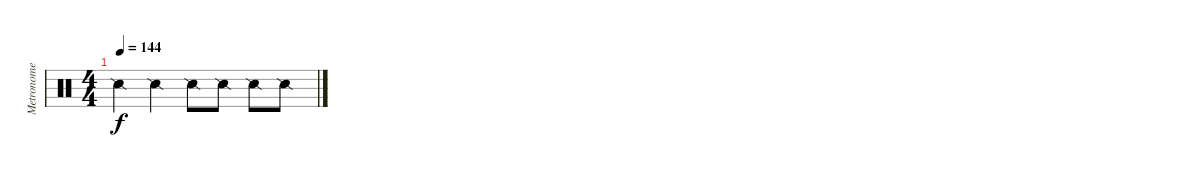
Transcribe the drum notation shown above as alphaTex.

\track ("Metronome" "Metronome") {instrument percussion}
\staff {score}
\articulation defaults
\ts (4 4)
\tempo 144
\clef neutral
\ks c "Snare (side stick) 2".4{dy f} "Snare (side stick) 2".4 "Snare (side stick) 2".8 "Snare (side stick) 2".8 "Snare (side stick) 2".8 "Snare (side stick) 2".8
